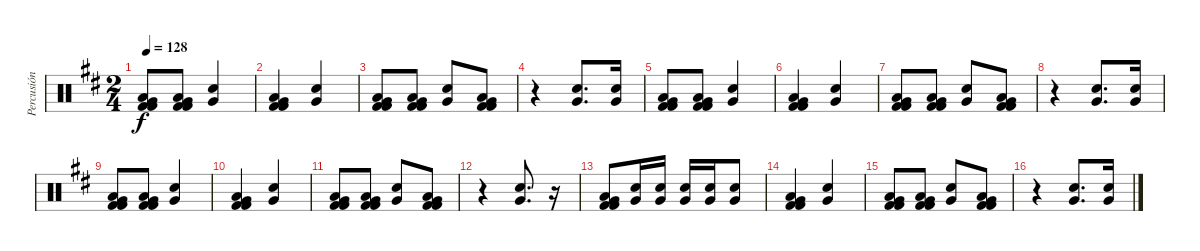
\track ("Percusión" "Percusión") {instrument percussion}
\staff {score}
\articulation defaults
\ts (2 4)
\tempo 128
\clef neutral
\ks d
("Kick (hit) 2" "Low Floor Tom (hit)" "Kick (hit) 2" "Very Low Tom (hit)").8{dy f} ("Kick (hit) 2" "Low Floor Tom (hit)" "Kick (hit) 2" "Very Low Tom (hit)").8 ("Electric Snare (hit)" "Very Low Tom (hit)").4 |
("Kick (hit) 2" "Low Floor Tom (hit)" "Kick (hit) 2" "Very Low Tom (hit)").4 ("Electric Snare (hit)" "Very Low Tom (hit)").4 |
("Kick (hit) 2" "Low Floor Tom (hit)" "Kick (hit) 2" "Very Low Tom (hit)").8 ("Kick (hit) 2" "Low Floor Tom (hit)" "Kick (hit) 2" "Very Low Tom (hit)").8 ("Electric Snare (hit)" "Very Low Tom (hit)").8 ("Kick (hit) 2" "Low Floor Tom (hit)" "Kick (hit) 2" "Very Low Tom (hit)").8 |
r.4 ("Electric Snare (hit)" "Very Low Tom (hit)").8{d} ("Electric Snare (hit)" "Very Low Tom (hit)").16 |
("Kick (hit) 2" "Low Floor Tom (hit)" "Kick (hit) 2" "Very Low Tom (hit)").8 ("Kick (hit) 2" "Low Floor Tom (hit)" "Kick (hit) 2" "Very Low Tom (hit)").8 ("Electric Snare (hit)" "Very Low Tom (hit)").4 |
("Kick (hit) 2" "Low Floor Tom (hit)" "Kick (hit) 2" "Very Low Tom (hit)").4 ("Electric Snare (hit)" "Very Low Tom (hit)").4 |
("Kick (hit) 2" "Low Floor Tom (hit)" "Kick (hit) 2" "Very Low Tom (hit)").8 ("Kick (hit) 2" "Low Floor Tom (hit)" "Kick (hit) 2" "Very Low Tom (hit)").8 ("Electric Snare (hit)" "Very Low Tom (hit)").8 ("Kick (hit) 2" "Low Floor Tom (hit)" "Kick (hit) 2" "Very Low Tom (hit)").8 |
r.4 ("Electric Snare (hit)" "Very Low Tom (hit)").8{d} ("Electric Snare (hit)" "Very Low Tom (hit)").16 |
("Kick (hit) 2" "Low Floor Tom (hit)" "Kick (hit) 2" "Very Low Tom (hit)").8 ("Kick (hit) 2" "Low Floor Tom (hit)" "Kick (hit) 2" "Very Low Tom (hit)").8 ("Electric Snare (hit)" "Very Low Tom (hit)").4 |
("Kick (hit) 2" "Low Floor Tom (hit)" "Kick (hit) 2" "Very Low Tom (hit)").4 ("Electric Snare (hit)" "Very Low Tom (hit)").4 |
("Kick (hit) 2" "Low Floor Tom (hit)" "Kick (hit) 2" "Very Low Tom (hit)").8 ("Kick (hit) 2" "Low Floor Tom (hit)" "Kick (hit) 2" "Very Low Tom (hit)").8 ("Electric Snare (hit)" "Very Low Tom (hit)").8 ("Kick (hit) 2" "Low Floor Tom (hit)" "Kick (hit) 2" "Very Low Tom (hit)").8 |
r.4 ("Electric Snare (hit)" "Very Low Tom (hit)").8{d} r.16 |
("Kick (hit) 2" "Low Floor Tom (hit)" "Kick (hit) 2" "Very Low Tom (hit)").8 ("Electric Snare (hit)" "Very Low Tom (hit)").16 ("Very Low Tom (hit)" "Snare (hit) 2").16 ("Electric Snare (hit)" "Very Low Tom (hit)").16 ("Very Low Tom (hit)" "Snare (hit) 2").16 ("Electric Snare (hit)" "Very Low Tom (hit)").8 |
("Kick (hit) 2" "Low Floor Tom (hit)" "Kick (hit) 2" "Very Low Tom (hit)").4 ("Electric Snare (hit)" "Very Low Tom (hit)").4 |
("Kick (hit) 2" "Low Floor Tom (hit)" "Kick (hit) 2" "Very Low Tom (hit)").8 ("Kick (hit) 2" "Low Floor Tom (hit)" "Kick (hit) 2" "Very Low Tom (hit)").8 ("Electric Snare (hit)" "Very Low Tom (hit)").8 ("Kick (hit) 2" "Low Floor Tom (hit)" "Kick (hit) 2" "Very Low Tom (hit)").8 |
r.4 ("Electric Snare (hit)" "Very Low Tom (hit)").8{d} ("Electric Snare (hit)" "Very Low Tom (hit)").16
